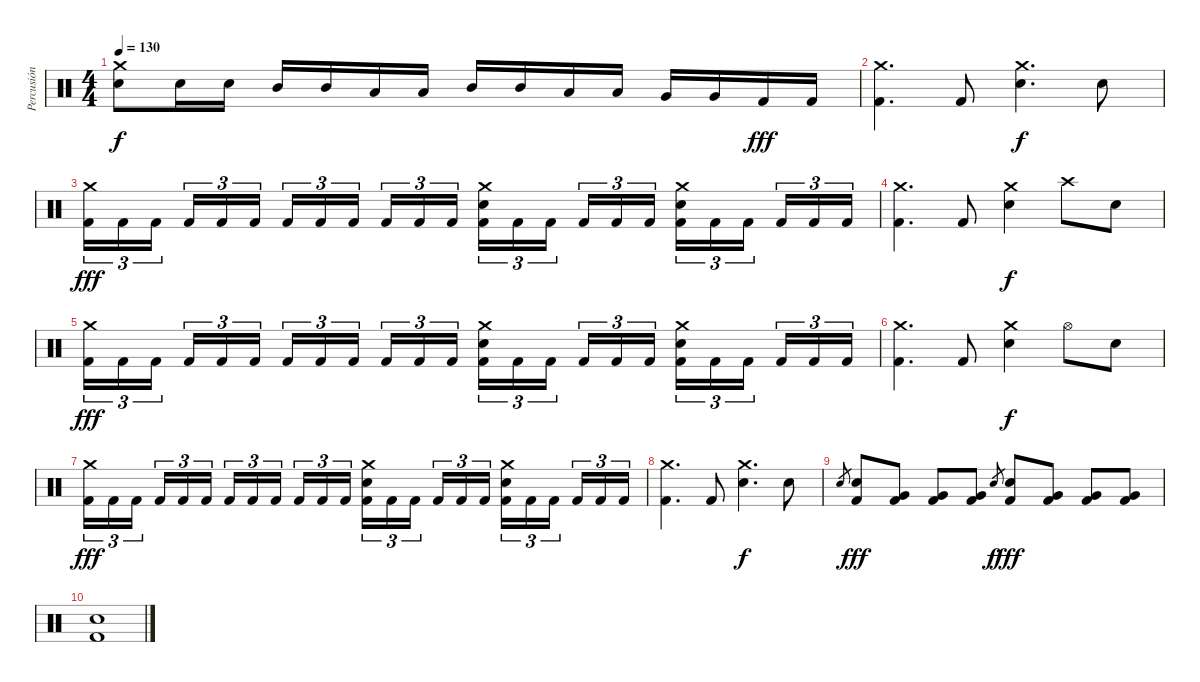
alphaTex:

\track ("Percusión" "Percusión") {instrument percussion}
\staff {score}
\articulation defaults
\ts (4 4)
\tempo 130
\clef neutral
\ks c
("Crash medium (hit)" "Electric Snare (hit)").8{dy f} "Electric Snare (hit)".16 "Electric Snare (hit)".16 "Mid Tom (hit)".16 "Mid Tom (hit)".16 "Low Tom (hit)".16 "Low Tom (hit)".16 "Mid Tom (hit)".16 "Mid Tom (hit)".16 "Low Tom (hit)".16 "Low Tom (hit)".16 "Very Low Tom (hit)".16 "Very Low Tom (hit)".16 "Kick (hit) 2".16{dy fff} "Kick (hit) 2".16 |
("Crash medium (hit)" "Kick (hit) 2").4{d} "Kick (hit) 2".8 ("Crash medium (hit)" "Electric Snare (hit)").4{d dy f} "Electric Snare (hit)".8 |
("Crash medium (hit)" "Kick (hit) 2").16{tu (3 2) dy fff} "Kick (hit) 2".16{tu (3 2)} "Kick (hit) 2".16{tu (3 2) beam splitsecondary} "Kick (hit) 2".16{tu (3 2)} "Kick (hit) 2".16{tu (3 2)} "Kick (hit) 2".16{tu (3 2)} "Kick (hit) 2".16{tu (3 2)} "Kick (hit) 2".16{tu (3 2)} "Kick (hit) 2".16{tu (3 2) beam splitsecondary} "Kick (hit) 2".16{tu (3 2)} "Kick (hit) 2".16{tu (3 2)} "Kick (hit) 2".16{tu (3 2)} ("Crash medium (hit)" "Electric Snare (hit)" "Kick (hit) 2").16{tu (3 2)} "Kick (hit) 2".16{tu (3 2)} "Kick (hit) 2".16{tu (3 2) beam splitsecondary} "Kick (hit) 2".16{tu (3 2)} "Kick (hit) 2".16{tu (3 2)} "Kick (hit) 2".16{tu (3 2)} ("Crash medium (hit)" "Electric Snare (hit)" "Kick (hit) 2").16{tu (3 2)} "Kick (hit) 2".16{tu (3 2)} "Kick (hit) 2".16{tu (3 2) beam splitsecondary} "Kick (hit) 2".16{tu (3 2)} "Kick (hit) 2".16{tu (3 2)} "Kick (hit) 2".16{tu (3 2)} |
("Crash medium (hit)" "Kick (hit) 2").4{d} "Kick (hit) 2".8 ("Crash medium (hit)" "Electric Snare (hit)").4{dy f} "Crash high (hit)".8 "Electric Snare (hit)".8 |
("Crash medium (hit)" "Kick (hit) 2").16{tu (3 2) dy fff} "Kick (hit) 2".16{tu (3 2)} "Kick (hit) 2".16{tu (3 2) beam splitsecondary} "Kick (hit) 2".16{tu (3 2)} "Kick (hit) 2".16{tu (3 2)} "Kick (hit) 2".16{tu (3 2)} "Kick (hit) 2".16{tu (3 2)} "Kick (hit) 2".16{tu (3 2)} "Kick (hit) 2".16{tu (3 2) beam splitsecondary} "Kick (hit) 2".16{tu (3 2)} "Kick (hit) 2".16{tu (3 2)} "Kick (hit) 2".16{tu (3 2)} ("Crash medium (hit)" "Electric Snare (hit)" "Kick (hit) 2").16{tu (3 2)} "Kick (hit) 2".16{tu (3 2)} "Kick (hit) 2".16{tu (3 2) beam splitsecondary} "Kick (hit) 2".16{tu (3 2)} "Kick (hit) 2".16{tu (3 2)} "Kick (hit) 2".16{tu (3 2)} ("Crash medium (hit)" "Electric Snare (hit)" "Kick (hit) 2").16{tu (3 2)} "Kick (hit) 2".16{tu (3 2)} "Kick (hit) 2".16{tu (3 2) beam splitsecondary} "Kick (hit) 2".16{tu (3 2)} "Kick (hit) 2".16{tu (3 2)} "Kick (hit) 2".16{tu (3 2)} |
("Crash medium (hit)" "Kick (hit) 2").4{d} "Kick (hit) 2".8 ("Crash medium (hit)" "Electric Snare (hit)").4{dy f} "Hi-Hat (open)".8 "Electric Snare (hit)".8 |
("Crash medium (hit)" "Kick (hit) 2").16{tu (3 2) dy fff} "Kick (hit) 2".16{tu (3 2)} "Kick (hit) 2".16{tu (3 2) beam splitsecondary} "Kick (hit) 2".16{tu (3 2)} "Kick (hit) 2".16{tu (3 2)} "Kick (hit) 2".16{tu (3 2)} "Kick (hit) 2".16{tu (3 2)} "Kick (hit) 2".16{tu (3 2)} "Kick (hit) 2".16{tu (3 2) beam splitsecondary} "Kick (hit) 2".16{tu (3 2)} "Kick (hit) 2".16{tu (3 2)} "Kick (hit) 2".16{tu (3 2)} ("Crash medium (hit)" "Electric Snare (hit)" "Kick (hit) 2").16{tu (3 2)} "Kick (hit) 2".16{tu (3 2)} "Kick (hit) 2".16{tu (3 2) beam splitsecondary} "Kick (hit) 2".16{tu (3 2)} "Kick (hit) 2".16{tu (3 2)} "Kick (hit) 2".16{tu (3 2)} ("Crash medium (hit)" "Electric Snare (hit)" "Kick (hit) 2").16{tu (3 2)} "Kick (hit) 2".16{tu (3 2)} "Kick (hit) 2".16{tu (3 2) beam splitsecondary} "Kick (hit) 2".16{tu (3 2)} "Kick (hit) 2".16{tu (3 2)} "Kick (hit) 2".16{tu (3 2)} |
("Crash medium (hit)" "Kick (hit) 2").4{d} "Kick (hit) 2".8 ("Crash medium (hit)" "Electric Snare (hit)").4{d dy f} "Electric Snare (hit)".8 |
"Electric Snare (hit)".8{gr} ("Electric Snare (hit)" "Kick (hit) 2").8{dy fff} ("Very Low Tom (hit)" "Kick (hit) 2").8 ("Very Low Tom (hit)" "Kick (hit) 2").8 ("Very Low Tom (hit)" "Kick (hit) 2").8 "Electric Snare (hit)".8{gr dy f} ("Electric Snare (hit)" "Kick (hit) 2").8{dy fff} ("Very Low Tom (hit)" "Kick (hit) 2").8 ("Very Low Tom (hit)" "Kick (hit) 2").8 ("Very Low Tom (hit)" "Kick (hit) 2").8 |
("Electric Snare (hit)" "Kick (hit) 2").1
